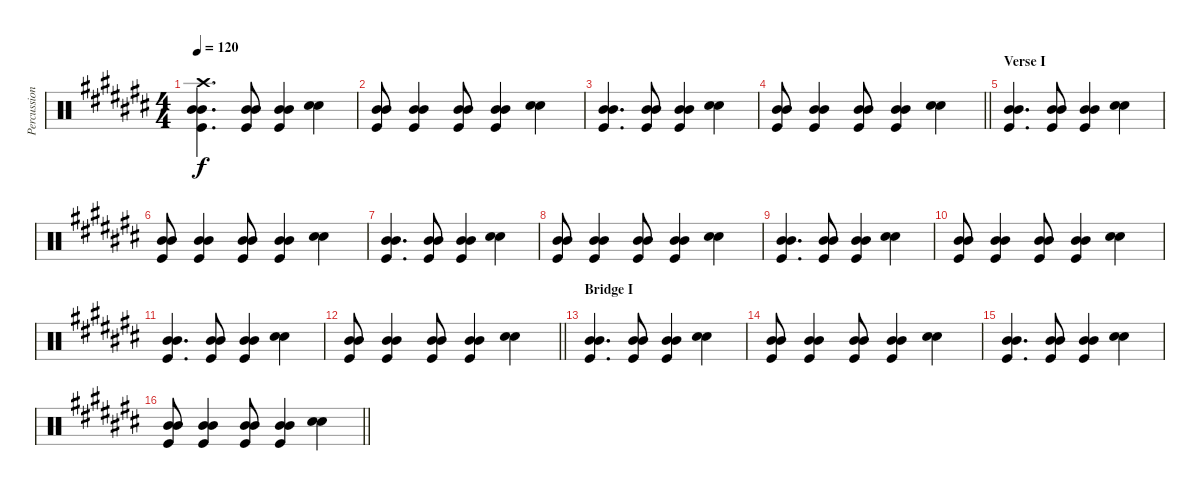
\track ("Percussion" "Percussion") {instrument percussion}
\staff {score}
\articulation defaults
\ts (4 4)
\tempo 120
\clef neutral
\ks a#minor
("Crash high (hit)" "Mid Tom (hit)" "Mid Tom (hit)" "Kick (hit)").4{d dy f} ("Mid Tom (hit)" "Mid Tom (hit)" "Kick (hit)").8 ("Mid Tom (hit)" "Mid Tom (hit)" "Kick (hit)").4 ("Snare (hit) 2" "Snare (hit) 2").4 |
("Mid Tom (hit)" "Mid Tom (hit)" "Kick (hit)").8 ("Mid Tom (hit)" "Mid Tom (hit)" "Kick (hit)").4 ("Mid Tom (hit)" "Mid Tom (hit)" "Kick (hit)").8 ("Mid Tom (hit)" "Mid Tom (hit)" "Kick (hit)").4 ("Snare (hit) 2" "Snare (hit) 2").4 |
("Mid Tom (hit)" "Mid Tom (hit)" "Kick (hit)").4{d} ("Mid Tom (hit)" "Mid Tom (hit)" "Kick (hit)").8 ("Mid Tom (hit)" "Mid Tom (hit)" "Kick (hit)").4 ("Snare (hit) 2" "Snare (hit) 2").4 |
\barLineRight lightlight
("Mid Tom (hit)" "Mid Tom (hit)" "Kick (hit)").8 ("Mid Tom (hit)" "Mid Tom (hit)" "Kick (hit)").4 ("Mid Tom (hit)" "Mid Tom (hit)" "Kick (hit)").8 ("Mid Tom (hit)" "Mid Tom (hit)" "Kick (hit)").4 ("Snare (hit) 2" "Snare (hit) 2").4 |
\section ("" "Verse I")
("Mid Tom (hit)" "Mid Tom (hit)" "Kick (hit)").4{d} ("Mid Tom (hit)" "Mid Tom (hit)" "Kick (hit)").8 ("Mid Tom (hit)" "Mid Tom (hit)" "Kick (hit)").4 ("Snare (hit) 2" "Snare (hit) 2").4 |
("Mid Tom (hit)" "Mid Tom (hit)" "Kick (hit)").8 ("Mid Tom (hit)" "Mid Tom (hit)" "Kick (hit)").4 ("Mid Tom (hit)" "Mid Tom (hit)" "Kick (hit)").8 ("Mid Tom (hit)" "Mid Tom (hit)" "Kick (hit)").4 ("Snare (hit) 2" "Snare (hit) 2").4 |
("Mid Tom (hit)" "Mid Tom (hit)" "Kick (hit)").4{d} ("Mid Tom (hit)" "Mid Tom (hit)" "Kick (hit)").8 ("Mid Tom (hit)" "Mid Tom (hit)" "Kick (hit)").4 ("Snare (hit) 2" "Snare (hit) 2").4 |
("Mid Tom (hit)" "Mid Tom (hit)" "Kick (hit)").8 ("Mid Tom (hit)" "Mid Tom (hit)" "Kick (hit)").4 ("Mid Tom (hit)" "Mid Tom (hit)" "Kick (hit)").8 ("Mid Tom (hit)" "Mid Tom (hit)" "Kick (hit)").4 ("Snare (hit) 2" "Snare (hit) 2").4 |
("Mid Tom (hit)" "Mid Tom (hit)" "Kick (hit)").4{d} ("Mid Tom (hit)" "Mid Tom (hit)" "Kick (hit)").8 ("Mid Tom (hit)" "Mid Tom (hit)" "Kick (hit)").4 ("Snare (hit) 2" "Snare (hit) 2").4 |
("Mid Tom (hit)" "Mid Tom (hit)" "Kick (hit)").8 ("Mid Tom (hit)" "Mid Tom (hit)" "Kick (hit)").4 ("Mid Tom (hit)" "Mid Tom (hit)" "Kick (hit)").8 ("Mid Tom (hit)" "Mid Tom (hit)" "Kick (hit)").4 ("Snare (hit) 2" "Snare (hit) 2").4 |
("Mid Tom (hit)" "Mid Tom (hit)" "Kick (hit)").4{d} ("Mid Tom (hit)" "Mid Tom (hit)" "Kick (hit)").8 ("Mid Tom (hit)" "Mid Tom (hit)" "Kick (hit)").4 ("Snare (hit) 2" "Snare (hit) 2").4 |
\barLineRight lightlight
("Mid Tom (hit)" "Mid Tom (hit)" "Kick (hit)").8 ("Mid Tom (hit)" "Mid Tom (hit)" "Kick (hit)").4 ("Mid Tom (hit)" "Mid Tom (hit)" "Kick (hit)").8 ("Mid Tom (hit)" "Mid Tom (hit)" "Kick (hit)").4 ("Snare (hit) 2" "Snare (hit) 2").4 |
\section ("" "Bridge I")
("Mid Tom (hit)" "Mid Tom (hit)" "Kick (hit)").4{d} ("Mid Tom (hit)" "Mid Tom (hit)" "Kick (hit)").8 ("Mid Tom (hit)" "Mid Tom (hit)" "Kick (hit)").4 ("Snare (hit) 2" "Snare (hit) 2").4 |
("Mid Tom (hit)" "Mid Tom (hit)" "Kick (hit)").8 ("Mid Tom (hit)" "Mid Tom (hit)" "Kick (hit)").4 ("Mid Tom (hit)" "Mid Tom (hit)" "Kick (hit)").8 ("Mid Tom (hit)" "Mid Tom (hit)" "Kick (hit)").4 ("Snare (hit) 2" "Snare (hit) 2").4 |
("Mid Tom (hit)" "Mid Tom (hit)" "Kick (hit)").4{d} ("Mid Tom (hit)" "Mid Tom (hit)" "Kick (hit)").8 ("Mid Tom (hit)" "Mid Tom (hit)" "Kick (hit)").4 ("Snare (hit) 2" "Snare (hit) 2").4 |
\barLineRight lightlight
("Mid Tom (hit)" "Mid Tom (hit)" "Kick (hit)").8 ("Mid Tom (hit)" "Mid Tom (hit)" "Kick (hit)").4 ("Mid Tom (hit)" "Mid Tom (hit)" "Kick (hit)").8 ("Mid Tom (hit)" "Mid Tom (hit)" "Kick (hit)").4 ("Snare (hit) 2" "Snare (hit) 2").4
